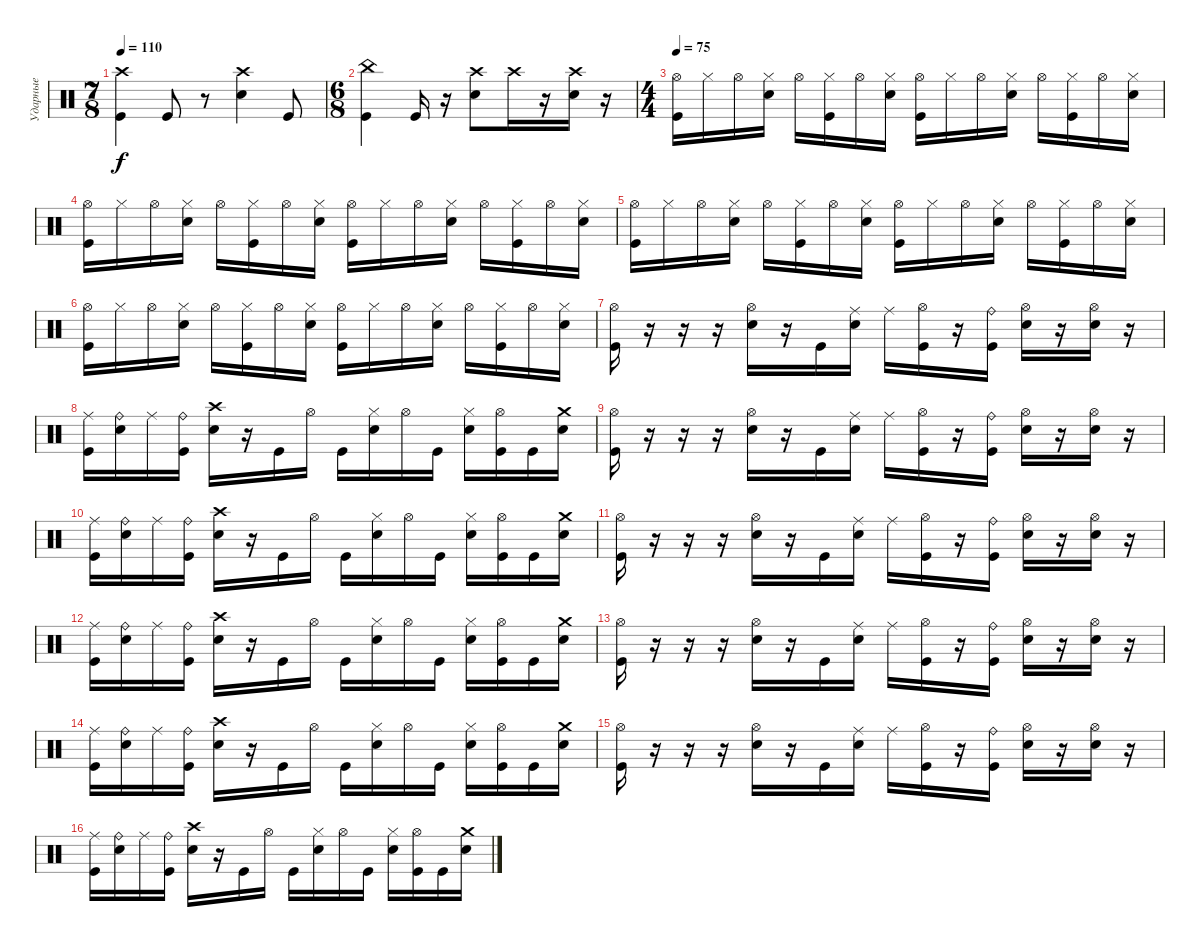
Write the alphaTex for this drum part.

\track ("Ударные" "Ударные") {instrument percussion}
\staff {score}
\articulation defaults
\ts (7 8)
\tempo 110
\clef neutral
\ks c
("Crash high (hit)" "Kick (hit)").4{dy f} "Kick (hit)".8 r.8 ("Crash high (hit)" "Snare (hit) 2").4 "Kick (hit)".8 |
\ts (6 8)
("China (hit)" "Kick (hit)").4 "Kick (hit)".16 r.16 ("Crash high (hit)" "Snare (hit) 2").8 "Crash high (hit)".16 r.16 ("Crash high (hit)" "Snare (hit) 2").16 r.16 |
\ts (4 4)
\tempo 75
("Hi-Hat (open)" "Kick (hit)").16 "Hi-Hat (closed)".16 "Hi-Hat (open)".16 ("Hi-Hat (closed)" "Snare (hit) 2").16 "Hi-Hat (open)".16 ("Hi-Hat (closed)" "Kick (hit)").16 "Hi-Hat (open)".16 ("Hi-Hat (closed)" "Snare (hit) 2").16 ("Hi-Hat (open)" "Kick (hit)").16 "Hi-Hat (closed)".16 "Hi-Hat (open)".16 ("Hi-Hat (closed)" "Snare (hit) 2").16 "Hi-Hat (open)".16 ("Hi-Hat (closed)" "Kick (hit)").16 "Hi-Hat (open)".16 ("Hi-Hat (closed)" "Snare (hit) 2").16 |
("Hi-Hat (open)" "Kick (hit)").16 "Hi-Hat (closed)".16 "Hi-Hat (open)".16 ("Hi-Hat (closed)" "Snare (hit) 2").16 "Hi-Hat (open)".16 ("Hi-Hat (closed)" "Kick (hit)").16 "Hi-Hat (open)".16 ("Hi-Hat (closed)" "Snare (hit) 2").16 ("Hi-Hat (open)" "Kick (hit)").16 "Hi-Hat (closed)".16 "Hi-Hat (open)".16 ("Hi-Hat (closed)" "Snare (hit) 2").16 "Hi-Hat (open)".16 ("Hi-Hat (closed)" "Kick (hit)").16 "Hi-Hat (open)".16 ("Hi-Hat (closed)" "Snare (hit) 2").16 |
("Hi-Hat (open)" "Kick (hit)").16 "Hi-Hat (closed)".16 "Hi-Hat (open)".16 ("Hi-Hat (closed)" "Snare (hit) 2").16 "Hi-Hat (open)".16 ("Hi-Hat (closed)" "Kick (hit)").16 "Hi-Hat (open)".16 ("Hi-Hat (closed)" "Snare (hit) 2").16 ("Hi-Hat (open)" "Kick (hit)").16 "Hi-Hat (closed)".16 "Hi-Hat (open)".16 ("Hi-Hat (closed)" "Snare (hit) 2").16 "Hi-Hat (open)".16 ("Hi-Hat (closed)" "Kick (hit)").16 "Hi-Hat (open)".16 ("Hi-Hat (closed)" "Snare (hit) 2").16 |
("Hi-Hat (open)" "Kick (hit)").16 "Hi-Hat (closed)".16 "Hi-Hat (open)".16 ("Hi-Hat (closed)" "Snare (hit) 2").16 "Hi-Hat (open)".16 ("Hi-Hat (closed)" "Kick (hit)").16 "Hi-Hat (open)".16 ("Hi-Hat (closed)" "Snare (hit) 2").16 ("Hi-Hat (open)" "Kick (hit)").16 "Hi-Hat (closed)".16 "Hi-Hat (open)".16 ("Hi-Hat (closed)" "Snare (hit) 2").16 "Hi-Hat (open)".16 ("Hi-Hat (closed)" "Kick (hit)").16 "Hi-Hat (open)".16 ("Hi-Hat (closed)" "Snare (hit) 2").16 |
("Hi-Hat (open)" "Kick (hit)").16 r.16 r.16 r.16 ("Hi-Hat (open)" "Snare (hit) 2").16 r.16 "Kick (hit)".16 ("Ride (middle)" "Snare (hit) 2").16 "Ride (middle)".16 ("Hi-Hat (open)" "Kick (hit)").16 r.16 ("Ride (bell)" "Kick (hit)").16 ("Hi-Hat (open)" "Snare (hit) 2").16 r.16 ("Hi-Hat (open)" "Snare (hit) 2").16 r.16 |
("Ride (middle)" "Kick (hit)").16 ("Ride (bell)" "Snare (hit) 2").16 "Ride (middle)".16 ("Ride (bell)" "Kick (hit)").16 ("Crash high (hit)" "Snare (hit) 2").16 r.16 "Kick (hit)".16 "Hi-Hat (open)".16 "Kick (hit)".16 ("Hi-Hat (closed)" "Snare (hit) 2").16 "Hi-Hat (open)".16 "Kick (hit)".16 ("Hi-Hat (closed)" "Snare (hit) 2").16 ("Hi-Hat (open)" "Kick (hit)").16 "Kick (hit)".16 ("Crash medium (hit)" "Snare (hit) 2").16 |
("Hi-Hat (open)" "Kick (hit)").16 r.16 r.16 r.16 ("Hi-Hat (open)" "Snare (hit) 2").16 r.16 "Kick (hit)".16 ("Ride (middle)" "Snare (hit) 2").16 "Ride (middle)".16 ("Hi-Hat (open)" "Kick (hit)").16 r.16 ("Ride (bell)" "Kick (hit)").16 ("Hi-Hat (open)" "Snare (hit) 2").16 r.16 ("Hi-Hat (open)" "Snare (hit) 2").16 r.16 |
("Ride (middle)" "Kick (hit)").16 ("Ride (bell)" "Snare (hit) 2").16 "Ride (middle)".16 ("Ride (bell)" "Kick (hit)").16 ("Crash high (hit)" "Snare (hit) 2").16 r.16 "Kick (hit)".16 "Hi-Hat (open)".16 "Kick (hit)".16 ("Hi-Hat (closed)" "Snare (hit) 2").16 "Hi-Hat (open)".16 "Kick (hit)".16 ("Hi-Hat (closed)" "Snare (hit) 2").16 ("Hi-Hat (open)" "Kick (hit)").16 "Kick (hit)".16 ("Crash medium (hit)" "Snare (hit) 2").16 |
("Hi-Hat (open)" "Kick (hit)").16 r.16 r.16 r.16 ("Hi-Hat (open)" "Snare (hit) 2").16 r.16 "Kick (hit)".16 ("Ride (middle)" "Snare (hit) 2").16 "Ride (middle)".16 ("Hi-Hat (open)" "Kick (hit)").16 r.16 ("Ride (bell)" "Kick (hit)").16 ("Hi-Hat (open)" "Snare (hit) 2").16 r.16 ("Hi-Hat (open)" "Snare (hit) 2").16 r.16 |
("Ride (middle)" "Kick (hit)").16 ("Ride (bell)" "Snare (hit) 2").16 "Ride (middle)".16 ("Ride (bell)" "Kick (hit)").16 ("Crash high (hit)" "Snare (hit) 2").16 r.16 "Kick (hit)".16 "Hi-Hat (open)".16 "Kick (hit)".16 ("Hi-Hat (closed)" "Snare (hit) 2").16 "Hi-Hat (open)".16 "Kick (hit)".16 ("Hi-Hat (closed)" "Snare (hit) 2").16 ("Hi-Hat (open)" "Kick (hit)").16 "Kick (hit)".16 ("Crash medium (hit)" "Snare (hit) 2").16 |
("Hi-Hat (open)" "Kick (hit)").16 r.16 r.16 r.16 ("Hi-Hat (open)" "Snare (hit) 2").16 r.16 "Kick (hit)".16 ("Ride (middle)" "Snare (hit) 2").16 "Ride (middle)".16 ("Hi-Hat (open)" "Kick (hit)").16 r.16 ("Ride (bell)" "Kick (hit)").16 ("Hi-Hat (open)" "Snare (hit) 2").16 r.16 ("Hi-Hat (open)" "Snare (hit) 2").16 r.16 |
("Ride (middle)" "Kick (hit)").16 ("Ride (bell)" "Snare (hit) 2").16 "Ride (middle)".16 ("Ride (bell)" "Kick (hit)").16 ("Crash high (hit)" "Snare (hit) 2").16 r.16 "Kick (hit)".16 "Hi-Hat (open)".16 "Kick (hit)".16 ("Hi-Hat (closed)" "Snare (hit) 2").16 "Hi-Hat (open)".16 "Kick (hit)".16 ("Hi-Hat (closed)" "Snare (hit) 2").16 ("Hi-Hat (open)" "Kick (hit)").16 "Kick (hit)".16 ("Crash medium (hit)" "Snare (hit) 2").16 |
("Hi-Hat (open)" "Kick (hit)").16 r.16 r.16 r.16 ("Hi-Hat (open)" "Snare (hit) 2").16 r.16 "Kick (hit)".16 ("Ride (middle)" "Snare (hit) 2").16 "Ride (middle)".16 ("Hi-Hat (open)" "Kick (hit)").16 r.16 ("Ride (bell)" "Kick (hit)").16 ("Hi-Hat (open)" "Snare (hit) 2").16 r.16 ("Hi-Hat (open)" "Snare (hit) 2").16 r.16 |
("Ride (middle)" "Kick (hit)").16 ("Ride (bell)" "Snare (hit) 2").16 "Ride (middle)".16 ("Ride (bell)" "Kick (hit)").16 ("Crash high (hit)" "Snare (hit) 2").16 r.16 "Kick (hit)".16 "Hi-Hat (open)".16 "Kick (hit)".16 ("Hi-Hat (closed)" "Snare (hit) 2").16 "Hi-Hat (open)".16 "Kick (hit)".16 ("Hi-Hat (closed)" "Snare (hit) 2").16 ("Hi-Hat (open)" "Kick (hit)").16 "Kick (hit)".16 ("Crash medium (hit)" "Snare (hit) 2").16
